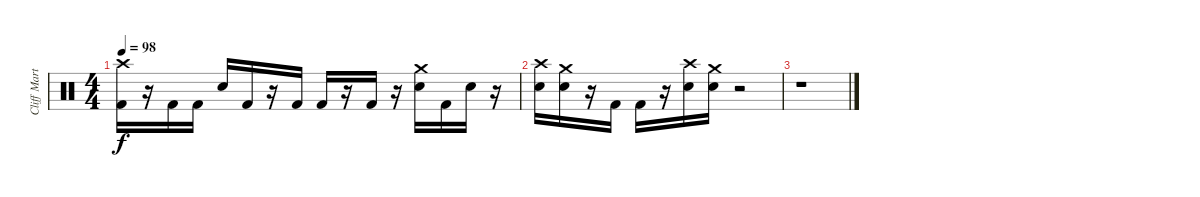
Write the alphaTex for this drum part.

\track ("Cliff Martinez" "Cliff Mart") {instrument percussion bank 1}
\staff {score}
\articulation defaults
\ts (4 4)
\tempo 98
\clef neutral
\ks c
("Crash high (hit)" "Kick (hit) 2").16{dy f} r.16 "Kick (hit) 2".16 "Kick (hit) 2".16 "Snare (hit) 2".16 "Kick (hit) 2".16 r.16 "Kick (hit) 2".16 "Kick (hit) 2".16 r.16 "Kick (hit) 2".16 r.16 ("Crash medium (hit)" "Snare (hit) 2").16 "Kick (hit) 2".16 "Snare (hit) 2".16 r.16 |
("Crash high (hit)" "Snare (hit) 2").16 ("Crash medium (hit)" "Snare (hit) 2").16 r.16 "Kick (hit) 2".16 "Kick (hit) 2".16 r.16 ("Crash high (hit)" "Snare (hit) 2").16 ("Crash medium (hit)" "Snare (hit) 2").16 r.2 |
r.1
